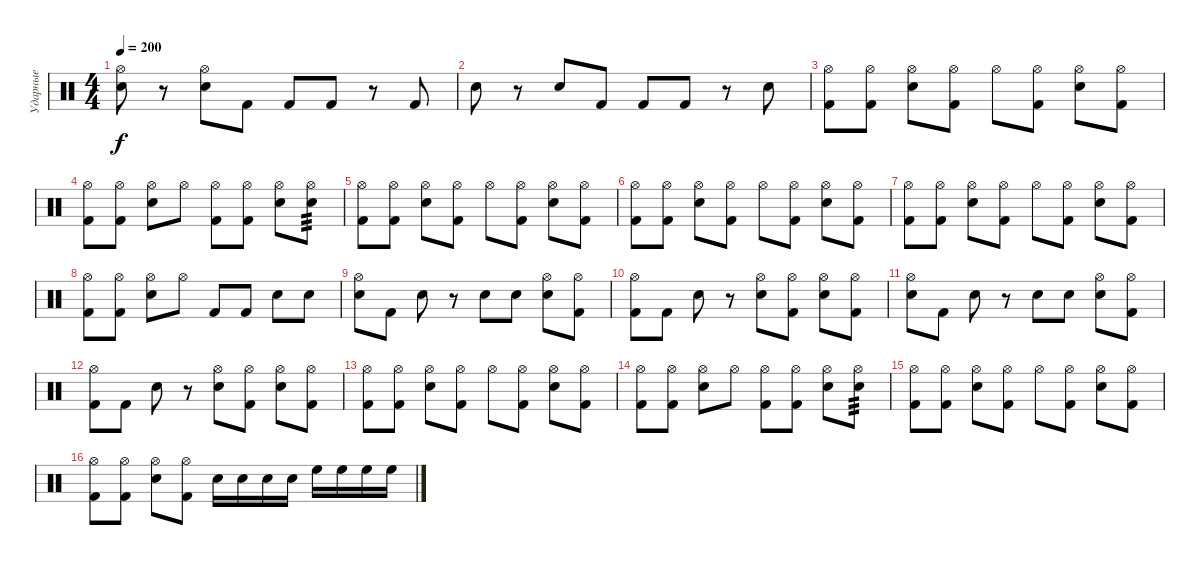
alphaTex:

\track ("Ударные" "Ударные") {instrument percussion}
\staff {score}
\articulation defaults
\ts (4 4)
\tempo 200
\clef neutral
\ks c
("Snare (hit) 2" "Hi-Hat (open)").8{dy f} r.8 ("Snare (hit) 2" "Hi-Hat (open)").8 "Kick (hit) 2".8 "Kick (hit) 2".8 "Kick (hit) 2".8 r.8 "Kick (hit) 2".8 |
"Snare (hit) 2".8 r.8 "Snare (hit) 2".8 "Kick (hit) 2".8 "Kick (hit) 2".8 "Kick (hit) 2".8 r.8 "Snare (hit) 2".8 |
("Kick (hit) 2" "Hi-Hat (open)").8 ("Kick (hit) 2" "Hi-Hat (open)").8 ("Snare (hit) 2" "Hi-Hat (open)").8 ("Kick (hit) 2" "Hi-Hat (open)").8 "Hi-Hat (open)".8 ("Kick (hit) 2" "Hi-Hat (open)").8 ("Snare (hit) 2" "Hi-Hat (open)").8 ("Kick (hit) 2" "Hi-Hat (open)").8 |
("Kick (hit) 2" "Hi-Hat (open)").8 ("Kick (hit) 2" "Hi-Hat (open)").8 ("Snare (hit) 2" "Hi-Hat (open)").8 "Hi-Hat (open)".8 ("Kick (hit) 2" "Hi-Hat (open)").8 ("Kick (hit) 2" "Hi-Hat (open)").8 ("Snare (hit) 2" "Hi-Hat (open)").8 ("Snare (hit) 2" "Hi-Hat (open)").8{tp 3} |
("Kick (hit) 2" "Hi-Hat (open)").8 ("Kick (hit) 2" "Hi-Hat (open)").8 ("Snare (hit) 2" "Hi-Hat (open)").8 ("Kick (hit) 2" "Hi-Hat (open)").8 "Hi-Hat (open)".8 ("Kick (hit) 2" "Hi-Hat (open)").8 ("Snare (hit) 2" "Hi-Hat (open)").8 ("Kick (hit) 2" "Hi-Hat (open)").8 |
("Kick (hit) 2" "Hi-Hat (open)").8 ("Kick (hit) 2" "Hi-Hat (open)").8 ("Snare (hit) 2" "Hi-Hat (open)").8 ("Kick (hit) 2" "Hi-Hat (open)").8 "Hi-Hat (open)".8 ("Kick (hit) 2" "Hi-Hat (open)").8 ("Snare (hit) 2" "Hi-Hat (open)").8 ("Kick (hit) 2" "Hi-Hat (open)").8 |
("Kick (hit) 2" "Hi-Hat (open)").8 ("Kick (hit) 2" "Hi-Hat (open)").8 ("Snare (hit) 2" "Hi-Hat (open)").8 ("Kick (hit) 2" "Hi-Hat (open)").8 "Hi-Hat (open)".8 ("Kick (hit) 2" "Hi-Hat (open)").8 ("Snare (hit) 2" "Hi-Hat (open)").8 ("Kick (hit) 2" "Hi-Hat (open)").8 |
("Kick (hit) 2" "Hi-Hat (open)").8 ("Kick (hit) 2" "Hi-Hat (open)").8 ("Snare (hit) 2" "Hi-Hat (open)").8 "Hi-Hat (open)".8 "Kick (hit) 2".8 "Kick (hit) 2".8 "Snare (hit) 2".8 "Snare (hit) 2".8 |
("Snare (hit) 2" "Hi-Hat (open)").8 "Kick (hit) 2".8 "Snare (hit) 2".8 r.8 "Snare (hit) 2".8 "Snare (hit) 2".8 ("Snare (hit) 2" "Hi-Hat (open)").8 ("Kick (hit) 2" "Hi-Hat (open)").8 |
("Kick (hit) 2" "Hi-Hat (open)").8 "Kick (hit) 2".8 "Snare (hit) 2".8 r.8 ("Snare (hit) 2" "Hi-Hat (open)").8 ("Kick (hit) 2" "Hi-Hat (open)").8 ("Snare (hit) 2" "Hi-Hat (open)").8 ("Kick (hit) 2" "Hi-Hat (open)").8 |
("Snare (hit) 2" "Hi-Hat (open)").8 "Kick (hit) 2".8 "Snare (hit) 2".8 r.8 "Snare (hit) 2".8 "Snare (hit) 2".8 ("Snare (hit) 2" "Hi-Hat (open)").8 ("Kick (hit) 2" "Hi-Hat (open)").8 |
("Kick (hit) 2" "Hi-Hat (open)").8 "Kick (hit) 2".8 "Snare (hit) 2".8 r.8 ("Snare (hit) 2" "Hi-Hat (open)").8 ("Kick (hit) 2" "Hi-Hat (open)").8 ("Snare (hit) 2" "Hi-Hat (open)").8 ("Kick (hit) 2" "Hi-Hat (open)").8 |
("Kick (hit) 2" "Hi-Hat (open)").8 ("Kick (hit) 2" "Hi-Hat (open)").8 ("Snare (hit) 2" "Hi-Hat (open)").8 ("Kick (hit) 2" "Hi-Hat (open)").8 "Hi-Hat (open)".8 ("Kick (hit) 2" "Hi-Hat (open)").8 ("Snare (hit) 2" "Hi-Hat (open)").8 ("Kick (hit) 2" "Hi-Hat (open)").8 |
("Kick (hit) 2" "Hi-Hat (open)").8 ("Kick (hit) 2" "Hi-Hat (open)").8 ("Snare (hit) 2" "Hi-Hat (open)").8 "Hi-Hat (open)".8 ("Kick (hit) 2" "Hi-Hat (open)").8 ("Kick (hit) 2" "Hi-Hat (open)").8 ("Snare (hit) 2" "Hi-Hat (open)").8 ("Snare (hit) 2" "Hi-Hat (open)").8{tp 3} |
("Kick (hit) 2" "Hi-Hat (open)").8 ("Kick (hit) 2" "Hi-Hat (open)").8 ("Snare (hit) 2" "Hi-Hat (open)").8 ("Kick (hit) 2" "Hi-Hat (open)").8 "Hi-Hat (open)".8 ("Kick (hit) 2" "Hi-Hat (open)").8 ("Snare (hit) 2" "Hi-Hat (open)").8 ("Kick (hit) 2" "Hi-Hat (open)").8 |
("Kick (hit) 2" "Hi-Hat (open)").8 ("Kick (hit) 2" "Hi-Hat (open)").8 ("Snare (hit) 2" "Hi-Hat (open)").8 ("Kick (hit) 2" "Hi-Hat (open)").8 "Snare (hit) 2".16 "Snare (hit) 2".16 "Snare (hit) 2".16 "Snare (hit) 2".16 "High Floor Tom (hit)".16 "High Floor Tom (hit)".16 "High Floor Tom (hit)".16 "High Floor Tom (hit)".16
